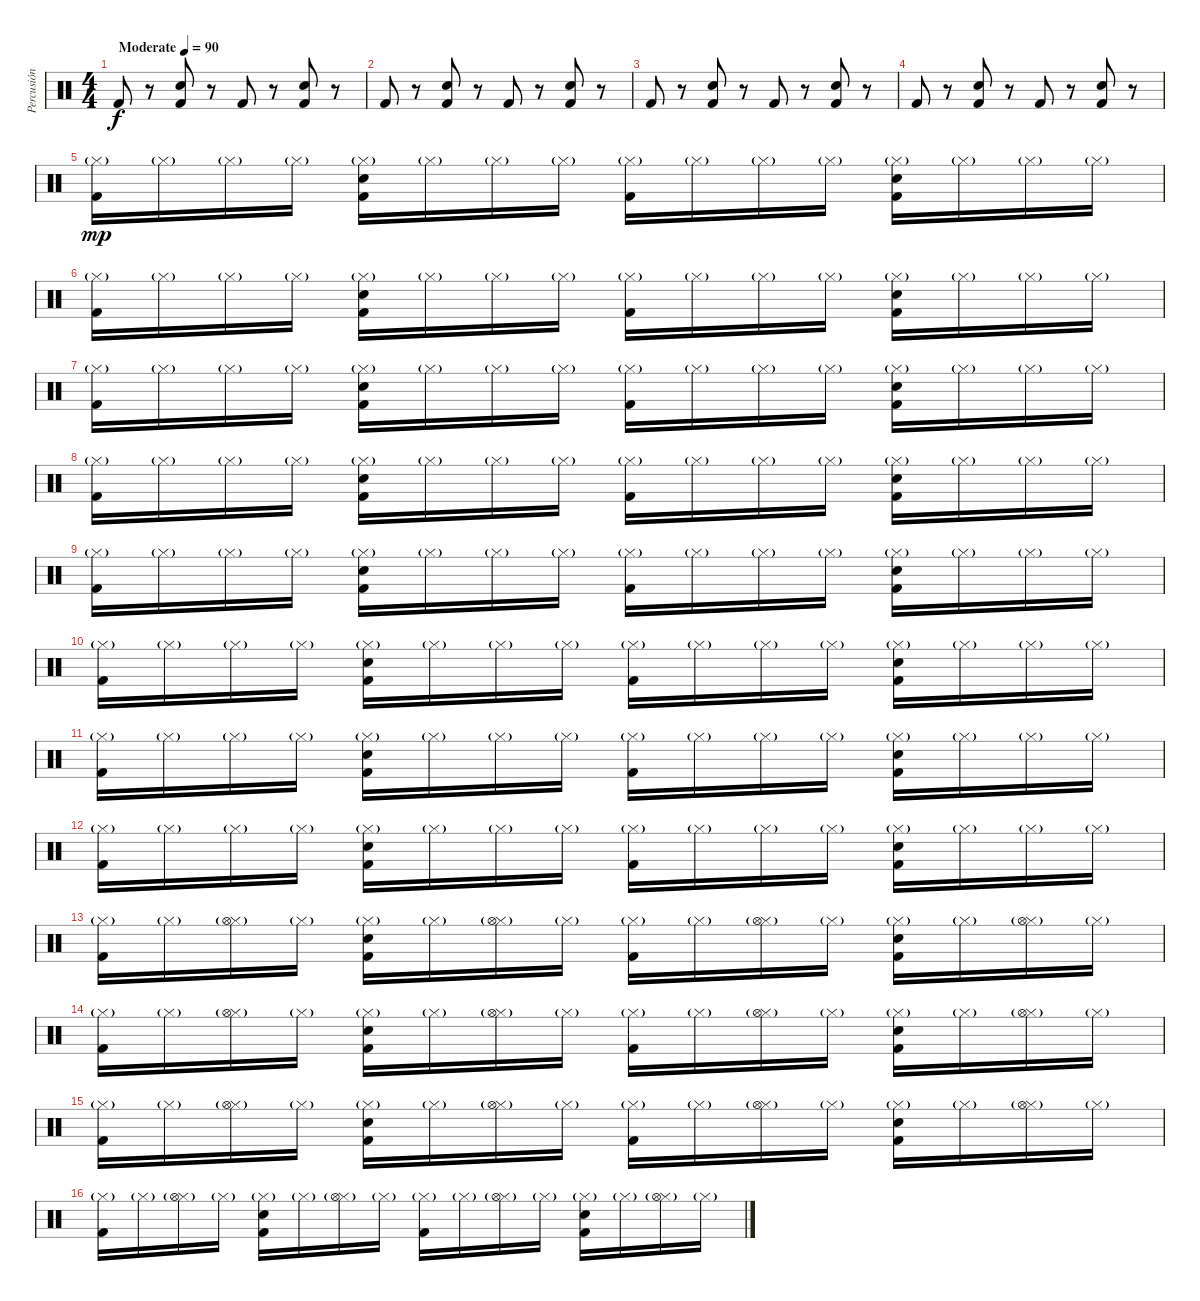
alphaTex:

\track ("Percusión" "Percusión") {instrument percussion}
\staff {score}
\articulation defaults
\ts (4 4)
\tempo (90 "Moderate")
\clef neutral
\ks c "Kick (hit) 2".8{dy f}
r.8 ("Kick (hit) 2" "Snare (hit) 2").8 r.8 "Kick (hit) 2".8 r.8 ("Kick (hit) 2" "Snare (hit) 2").8 r.8 |
"Kick (hit) 2".8 r.8 ("Kick (hit) 2" "Snare (hit) 2").8 r.8 "Kick (hit) 2".8 r.8 ("Kick (hit) 2" "Snare (hit) 2").8 r.8 |
"Kick (hit) 2".8 r.8 ("Kick (hit) 2" "Snare (hit) 2").8 r.8 "Kick (hit) 2".8 r.8 ("Kick (hit) 2" "Snare (hit) 2").8 r.8 |
"Kick (hit) 2".8 r.8 ("Kick (hit) 2" "Snare (hit) 2").8 r.8 "Kick (hit) 2".8 r.8 ("Kick (hit) 2" "Snare (hit) 2").8 r.8 |
("Kick (hit) 2" "Hi-Hat (closed)"{g}).16{dy mp} "Hi-Hat (closed)"{g}.16 "Hi-Hat (closed)"{g}.16 "Hi-Hat (closed)"{g}.16 ("Kick (hit) 2" "Snare (hit) 2" "Hi-Hat (closed)"{g}).16 "Hi-Hat (closed)"{g}.16 "Hi-Hat (closed)"{g}.16 "Hi-Hat (closed)"{g}.16 ("Kick (hit) 2" "Hi-Hat (closed)"{g}).16 "Hi-Hat (closed)"{g}.16 "Hi-Hat (closed)"{g}.16 "Hi-Hat (closed)"{g}.16 ("Kick (hit) 2" "Snare (hit) 2" "Hi-Hat (closed)"{g}).16 "Hi-Hat (closed)"{g}.16 "Hi-Hat (closed)"{g}.16 "Hi-Hat (closed)"{g}.16 |
("Kick (hit) 2" "Hi-Hat (closed)"{g}).16 "Hi-Hat (closed)"{g}.16 "Hi-Hat (closed)"{g}.16 "Hi-Hat (closed)"{g}.16 ("Kick (hit) 2" "Snare (hit) 2" "Hi-Hat (closed)"{g}).16 "Hi-Hat (closed)"{g}.16 "Hi-Hat (closed)"{g}.16 "Hi-Hat (closed)"{g}.16 ("Kick (hit) 2" "Hi-Hat (closed)"{g}).16 "Hi-Hat (closed)"{g}.16 "Hi-Hat (closed)"{g}.16 "Hi-Hat (closed)"{g}.16 ("Kick (hit) 2" "Snare (hit) 2" "Hi-Hat (closed)"{g}).16 "Hi-Hat (closed)"{g}.16 "Hi-Hat (closed)"{g}.16 "Hi-Hat (closed)"{g}.16 |
("Kick (hit) 2" "Hi-Hat (closed)"{g}).16 "Hi-Hat (closed)"{g}.16 "Hi-Hat (closed)"{g}.16 "Hi-Hat (closed)"{g}.16 ("Kick (hit) 2" "Snare (hit) 2" "Hi-Hat (closed)"{g}).16 "Hi-Hat (closed)"{g}.16 "Hi-Hat (closed)"{g}.16 "Hi-Hat (closed)"{g}.16 ("Kick (hit) 2" "Hi-Hat (closed)"{g}).16 "Hi-Hat (closed)"{g}.16 "Hi-Hat (closed)"{g}.16 "Hi-Hat (closed)"{g}.16 ("Kick (hit) 2" "Snare (hit) 2" "Hi-Hat (closed)"{g}).16 "Hi-Hat (closed)"{g}.16 "Hi-Hat (closed)"{g}.16 "Hi-Hat (closed)"{g}.16 |
("Kick (hit) 2" "Hi-Hat (closed)"{g}).16 "Hi-Hat (closed)"{g}.16 "Hi-Hat (closed)"{g}.16 "Hi-Hat (closed)"{g}.16 ("Kick (hit) 2" "Snare (hit) 2" "Hi-Hat (closed)"{g}).16 "Hi-Hat (closed)"{g}.16 "Hi-Hat (closed)"{g}.16 "Hi-Hat (closed)"{g}.16 ("Kick (hit) 2" "Hi-Hat (closed)"{g}).16 "Hi-Hat (closed)"{g}.16 "Hi-Hat (closed)"{g}.16 "Hi-Hat (closed)"{g}.16 ("Kick (hit) 2" "Snare (hit) 2" "Hi-Hat (closed)"{g}).16 "Hi-Hat (closed)"{g}.16 "Hi-Hat (closed)"{g}.16 "Hi-Hat (closed)"{g}.16 |
("Kick (hit) 2" "Hi-Hat (closed)"{g}).16 "Hi-Hat (closed)"{g}.16 "Hi-Hat (closed)"{g}.16 "Hi-Hat (closed)"{g}.16 ("Kick (hit) 2" "Snare (hit) 2" "Hi-Hat (closed)"{g}).16 "Hi-Hat (closed)"{g}.16 "Hi-Hat (closed)"{g}.16 "Hi-Hat (closed)"{g}.16 ("Kick (hit) 2" "Hi-Hat (closed)"{g}).16 "Hi-Hat (closed)"{g}.16 "Hi-Hat (closed)"{g}.16 "Hi-Hat (closed)"{g}.16 ("Kick (hit) 2" "Snare (hit) 2" "Hi-Hat (closed)"{g}).16 "Hi-Hat (closed)"{g}.16 "Hi-Hat (closed)"{g}.16 "Hi-Hat (closed)"{g}.16 |
("Kick (hit) 2" "Hi-Hat (closed)"{g}).16 "Hi-Hat (closed)"{g}.16 "Hi-Hat (closed)"{g}.16 "Hi-Hat (closed)"{g}.16 ("Kick (hit) 2" "Snare (hit) 2" "Hi-Hat (closed)"{g}).16 "Hi-Hat (closed)"{g}.16 "Hi-Hat (closed)"{g}.16 "Hi-Hat (closed)"{g}.16 ("Kick (hit) 2" "Hi-Hat (closed)"{g}).16 "Hi-Hat (closed)"{g}.16 "Hi-Hat (closed)"{g}.16 "Hi-Hat (closed)"{g}.16 ("Kick (hit) 2" "Snare (hit) 2" "Hi-Hat (closed)"{g}).16 "Hi-Hat (closed)"{g}.16 "Hi-Hat (closed)"{g}.16 "Hi-Hat (closed)"{g}.16 |
("Kick (hit) 2" "Hi-Hat (closed)"{g}).16 "Hi-Hat (closed)"{g}.16 "Hi-Hat (closed)"{g}.16 "Hi-Hat (closed)"{g}.16 ("Kick (hit) 2" "Snare (hit) 2" "Hi-Hat (closed)"{g}).16 "Hi-Hat (closed)"{g}.16 "Hi-Hat (closed)"{g}.16 "Hi-Hat (closed)"{g}.16 ("Kick (hit) 2" "Hi-Hat (closed)"{g}).16 "Hi-Hat (closed)"{g}.16 "Hi-Hat (closed)"{g}.16 "Hi-Hat (closed)"{g}.16 ("Kick (hit) 2" "Snare (hit) 2" "Hi-Hat (closed)"{g}).16 "Hi-Hat (closed)"{g}.16 "Hi-Hat (closed)"{g}.16 "Hi-Hat (closed)"{g}.16 |
("Kick (hit) 2" "Hi-Hat (closed)"{g}).16 "Hi-Hat (closed)"{g}.16 "Hi-Hat (closed)"{g}.16 "Hi-Hat (closed)"{g}.16 ("Kick (hit) 2" "Snare (hit) 2" "Hi-Hat (closed)"{g}).16 "Hi-Hat (closed)"{g}.16 "Hi-Hat (closed)"{g}.16 "Hi-Hat (closed)"{g}.16 ("Kick (hit) 2" "Hi-Hat (closed)"{g}).16 "Hi-Hat (closed)"{g}.16 "Hi-Hat (closed)"{g}.16 "Hi-Hat (closed)"{g}.16 ("Kick (hit) 2" "Snare (hit) 2" "Hi-Hat (closed)"{g}).16 "Hi-Hat (closed)"{g}.16 "Hi-Hat (closed)"{g}.16 "Hi-Hat (closed)"{g}.16 |
("Kick (hit) 2" "Hi-Hat (closed)"{g}).16 "Hi-Hat (closed)"{g}.16 ("Hi-Hat (closed)"{g} "Hi-Hat (open)").16 "Hi-Hat (closed)"{g}.16 ("Kick (hit) 2" "Snare (hit) 2" "Hi-Hat (closed)"{g}).16 "Hi-Hat (closed)"{g}.16 ("Hi-Hat (closed)"{g} "Hi-Hat (open)").16 "Hi-Hat (closed)"{g}.16 ("Kick (hit) 2" "Hi-Hat (closed)"{g}).16 "Hi-Hat (closed)"{g}.16 ("Hi-Hat (closed)"{g} "Hi-Hat (open)").16 "Hi-Hat (closed)"{g}.16 ("Kick (hit) 2" "Snare (hit) 2" "Hi-Hat (closed)"{g}).16 "Hi-Hat (closed)"{g}.16 ("Hi-Hat (closed)"{g} "Hi-Hat (open)").16 "Hi-Hat (closed)"{g}.16 |
("Kick (hit) 2" "Hi-Hat (closed)"{g}).16 "Hi-Hat (closed)"{g}.16 ("Hi-Hat (closed)"{g} "Hi-Hat (open)").16 "Hi-Hat (closed)"{g}.16 ("Kick (hit) 2" "Snare (hit) 2" "Hi-Hat (closed)"{g}).16 "Hi-Hat (closed)"{g}.16 ("Hi-Hat (closed)"{g} "Hi-Hat (open)").16 "Hi-Hat (closed)"{g}.16 ("Kick (hit) 2" "Hi-Hat (closed)"{g}).16 "Hi-Hat (closed)"{g}.16 ("Hi-Hat (closed)"{g} "Hi-Hat (open)").16 "Hi-Hat (closed)"{g}.16 ("Kick (hit) 2" "Snare (hit) 2" "Hi-Hat (closed)"{g}).16 "Hi-Hat (closed)"{g}.16 ("Hi-Hat (closed)"{g} "Hi-Hat (open)").16 "Hi-Hat (closed)"{g}.16 |
("Kick (hit) 2" "Hi-Hat (closed)"{g}).16 "Hi-Hat (closed)"{g}.16 ("Hi-Hat (closed)"{g} "Hi-Hat (open)").16 "Hi-Hat (closed)"{g}.16 ("Kick (hit) 2" "Snare (hit) 2" "Hi-Hat (closed)"{g}).16 "Hi-Hat (closed)"{g}.16 ("Hi-Hat (closed)"{g} "Hi-Hat (open)").16 "Hi-Hat (closed)"{g}.16 ("Kick (hit) 2" "Hi-Hat (closed)"{g}).16 "Hi-Hat (closed)"{g}.16 ("Hi-Hat (closed)"{g} "Hi-Hat (open)").16 "Hi-Hat (closed)"{g}.16 ("Kick (hit) 2" "Snare (hit) 2" "Hi-Hat (closed)"{g}).16 "Hi-Hat (closed)"{g}.16 ("Hi-Hat (closed)"{g} "Hi-Hat (open)").16 "Hi-Hat (closed)"{g}.16 |
("Kick (hit) 2" "Hi-Hat (closed)"{g}).16 "Hi-Hat (closed)"{g}.16 ("Hi-Hat (closed)"{g} "Hi-Hat (open)").16 "Hi-Hat (closed)"{g}.16 ("Kick (hit) 2" "Snare (hit) 2" "Hi-Hat (closed)"{g}).16 "Hi-Hat (closed)"{g}.16 ("Hi-Hat (closed)"{g} "Hi-Hat (open)").16 "Hi-Hat (closed)"{g}.16 ("Kick (hit) 2" "Hi-Hat (closed)"{g}).16 "Hi-Hat (closed)"{g}.16 ("Hi-Hat (closed)"{g} "Hi-Hat (open)").16 "Hi-Hat (closed)"{g}.16 ("Kick (hit) 2" "Snare (hit) 2" "Hi-Hat (closed)"{g}).16 "Hi-Hat (closed)"{g}.16 ("Hi-Hat (closed)"{g} "Hi-Hat (open)").16 "Hi-Hat (closed)"{g}.16
